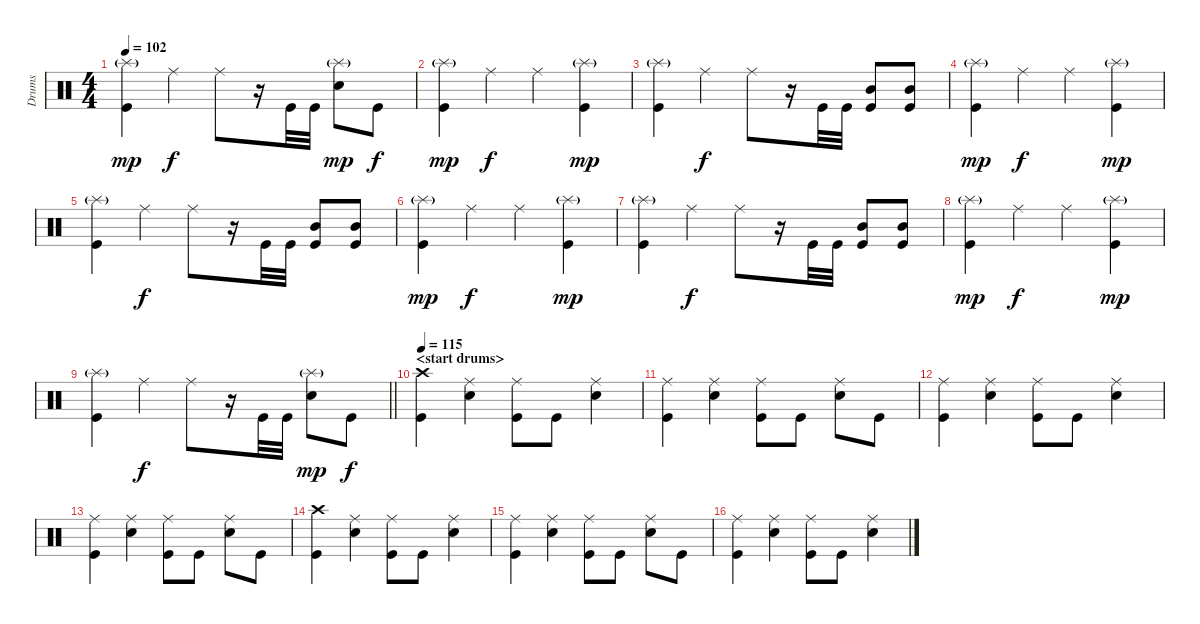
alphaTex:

\track ("Drums" "Drums") {instrument percussion}
\staff {score}
\articulation defaults
\ts (4 4)
\tempo 102
\clef neutral
\ks c
("Splash (hit)"{g} "Kick (hit)").4{dy mp} "Ride (middle)".4{dy f} "Ride (middle)".8 r.16 "Kick (hit)".32 "Kick (hit)".32 ("Splash (hit)"{g} "Snare (hit) 2").8{dy mp} "Kick (hit)".8{dy f} |
("Splash (hit)"{g} "Kick (hit)").4{dy mp} "Ride (middle)".4{dy f} "Ride (middle)".4 ("Splash (hit)"{g} "Kick (hit)").4{dy mp} |
("Splash (hit)"{g} "Kick (hit)").4 "Ride (middle)".4{dy f} "Ride (middle)".8 r.16 "Kick (hit)".32 "Kick (hit)".32 ("Mid Tom (hit)" "Kick (hit)").8 ("Mid Tom (hit)" "Kick (hit)").8 |
("Splash (hit)"{g} "Kick (hit)").4{dy mp} "Ride (middle)".4{dy f} "Ride (middle)".4 ("Splash (hit)"{g} "Kick (hit)").4{dy mp} |
("Splash (hit)"{g} "Kick (hit)").4 "Ride (middle)".4{dy f} "Ride (middle)".8 r.16 "Kick (hit)".32 "Kick (hit)".32 ("Mid Tom (hit)" "Kick (hit)").8 ("Mid Tom (hit)" "Kick (hit)").8 |
("Splash (hit)"{g} "Kick (hit)").4{dy mp} "Ride (middle)".4{dy f} "Ride (middle)".4 ("Splash (hit)"{g} "Kick (hit)").4{dy mp} |
("Splash (hit)"{g} "Kick (hit)").4 "Ride (middle)".4{dy f} "Ride (middle)".8 r.16 "Kick (hit)".32 "Kick (hit)".32 ("Mid Tom (hit)" "Kick (hit)").8 ("Mid Tom (hit)" "Kick (hit)").8 |
("Splash (hit)"{g} "Kick (hit)").4{dy mp} "Ride (middle)".4{dy f} "Ride (middle)".4 ("Splash (hit)"{g} "Kick (hit)").4{dy mp} |
\barLineRight lightlight
("Splash (hit)"{g} "Kick (hit)").4 "Ride (middle)".4{dy f} "Ride (middle)".8 r.16 "Kick (hit)".32 "Kick (hit)".32 ("Splash (hit)"{g} "Snare (hit) 2").8{dy mp} "Kick (hit)".8{dy f} |
\section ("" "<start drums>")
\tempo 115
("Crash high (hit)" "Kick (hit)").4 ("Ride (middle)" "Snare (hit) 2").4 ("Ride (middle)" "Kick (hit)").8 "Kick (hit)".8 ("Ride (middle)" "Snare (hit) 2").4 |
("Ride (middle)" "Kick (hit)").4 ("Ride (middle)" "Snare (hit) 2").4 ("Ride (middle)" "Kick (hit)").8 "Kick (hit)".8 ("Ride (middle)" "Snare (hit) 2").8 "Kick (hit)".8 |
("Ride (middle)" "Kick (hit)").4 ("Ride (middle)" "Snare (hit) 2").4 ("Ride (middle)" "Kick (hit)").8 "Kick (hit)".8 ("Ride (middle)" "Snare (hit) 2").4 |
("Ride (middle)" "Kick (hit)").4 ("Ride (middle)" "Snare (hit) 2").4 ("Ride (middle)" "Kick (hit)").8 "Kick (hit)".8 ("Ride (middle)" "Snare (hit) 2").8 "Kick (hit)".8 |
("Crash high (hit)" "Kick (hit)").4 ("Ride (middle)" "Snare (hit) 2").4 ("Ride (middle)" "Kick (hit)").8 "Kick (hit)".8 ("Ride (middle)" "Snare (hit) 2").4 |
("Ride (middle)" "Kick (hit)").4 ("Ride (middle)" "Snare (hit) 2").4 ("Ride (middle)" "Kick (hit)").8 "Kick (hit)".8 ("Ride (middle)" "Snare (hit) 2").8 "Kick (hit)".8 |
("Ride (middle)" "Kick (hit)").4 ("Ride (middle)" "Snare (hit) 2").4 ("Ride (middle)" "Kick (hit)").8 "Kick (hit)".8 ("Ride (middle)" "Snare (hit) 2").4
